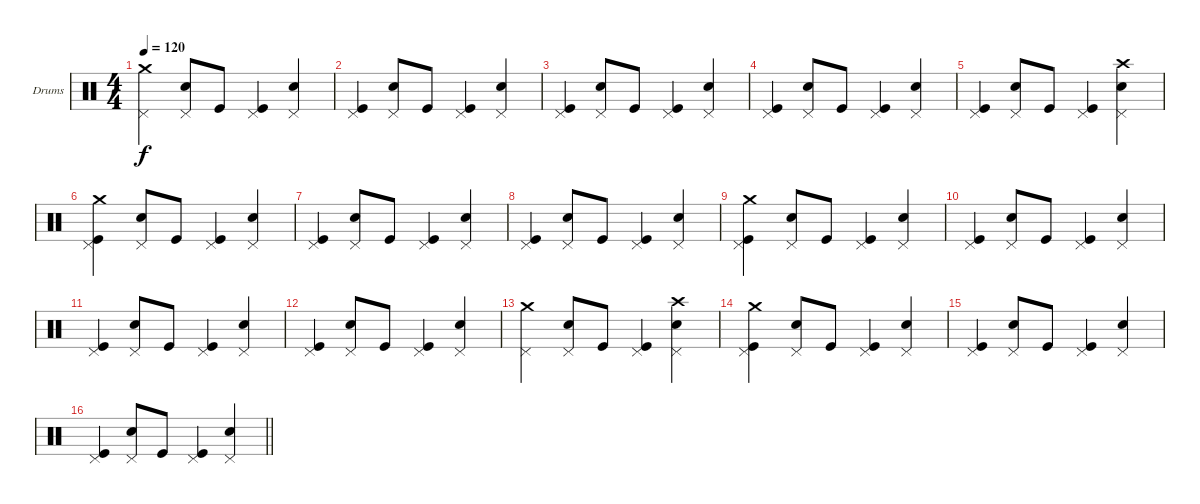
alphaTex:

\bracketExtendMode groupsimilarinstruments
\firstSystemTrackNameOrientation horizontal
\otherSystemsTrackNameOrientation horizontal
\track ("Drumkit" "Drums") {instrument percussion}
\staff {score}
\articulation defaults
\ts (4 4)
\tempo 120
\clef neutral
\ks c
("Crash medium (hit)" "Pedal Hi-Hat (hit)").4{dy f} ("Snare (hit) 2" "Pedal Hi-Hat (hit)").8 "Kick (hit)".8 ("Kick (hit)" "Pedal Hi-Hat (hit)").4 ("Snare (hit) 2" "Pedal Hi-Hat (hit)").4 |
("Kick (hit)" "Pedal Hi-Hat (hit)").4 ("Snare (hit) 2" "Pedal Hi-Hat (hit)").8 "Kick (hit)".8 ("Kick (hit)" "Pedal Hi-Hat (hit)").4 ("Snare (hit) 2" "Pedal Hi-Hat (hit)").4 |
("Kick (hit)" "Pedal Hi-Hat (hit)").4 ("Snare (hit) 2" "Pedal Hi-Hat (hit)").8 "Kick (hit)".8 ("Kick (hit)" "Pedal Hi-Hat (hit)").4 ("Snare (hit) 2" "Pedal Hi-Hat (hit)").4 |
("Kick (hit)" "Pedal Hi-Hat (hit)").4 ("Snare (hit) 2" "Pedal Hi-Hat (hit)").8 "Kick (hit)".8 ("Kick (hit)" "Pedal Hi-Hat (hit)").4 ("Snare (hit) 2" "Pedal Hi-Hat (hit)").4 |
("Kick (hit)" "Pedal Hi-Hat (hit)").4 ("Snare (hit) 2" "Pedal Hi-Hat (hit)").8 "Kick (hit)".8 ("Kick (hit)" "Pedal Hi-Hat (hit)").4 ("Snare (hit) 2" "Crash high (hit)" "Pedal Hi-Hat (hit)").4 |
("Kick (hit)" "Crash medium (hit)" "Pedal Hi-Hat (hit)").4 ("Snare (hit) 2" "Pedal Hi-Hat (hit)").8 "Kick (hit)".8 ("Kick (hit)" "Pedal Hi-Hat (hit)").4 ("Snare (hit) 2" "Pedal Hi-Hat (hit)").4 |
("Kick (hit)" "Pedal Hi-Hat (hit)").4 ("Snare (hit) 2" "Pedal Hi-Hat (hit)").8 "Kick (hit)".8 ("Kick (hit)" "Pedal Hi-Hat (hit)").4 ("Snare (hit) 2" "Pedal Hi-Hat (hit)").4 |
("Kick (hit)" "Pedal Hi-Hat (hit)").4 ("Snare (hit) 2" "Pedal Hi-Hat (hit)").8 "Kick (hit)".8 ("Kick (hit)" "Pedal Hi-Hat (hit)").4 ("Snare (hit) 2" "Pedal Hi-Hat (hit)").4 |
("Kick (hit)" "Crash medium (hit)" "Pedal Hi-Hat (hit)").4 ("Snare (hit) 2" "Pedal Hi-Hat (hit)").8 "Kick (hit)".8 ("Kick (hit)" "Pedal Hi-Hat (hit)").4 ("Snare (hit) 2" "Pedal Hi-Hat (hit)").4 |
("Kick (hit)" "Pedal Hi-Hat (hit)").4 ("Snare (hit) 2" "Pedal Hi-Hat (hit)").8 "Kick (hit)".8 ("Kick (hit)" "Pedal Hi-Hat (hit)").4 ("Snare (hit) 2" "Pedal Hi-Hat (hit)").4 |
("Kick (hit)" "Pedal Hi-Hat (hit)").4 ("Snare (hit) 2" "Pedal Hi-Hat (hit)").8 "Kick (hit)".8 ("Kick (hit)" "Pedal Hi-Hat (hit)").4 ("Snare (hit) 2" "Pedal Hi-Hat (hit)").4 |
("Kick (hit)" "Pedal Hi-Hat (hit)").4 ("Snare (hit) 2" "Pedal Hi-Hat (hit)").8 "Kick (hit)".8 ("Kick (hit)" "Pedal Hi-Hat (hit)").4 ("Snare (hit) 2" "Pedal Hi-Hat (hit)").4 |
("Crash medium (hit)" "Pedal Hi-Hat (hit)").4 ("Snare (hit) 2" "Pedal Hi-Hat (hit)").8 "Kick (hit)".8 ("Kick (hit)" "Pedal Hi-Hat (hit)").4 ("Snare (hit) 2" "Crash high (hit)" "Pedal Hi-Hat (hit)").4 |
("Kick (hit)" "Crash medium (hit)" "Pedal Hi-Hat (hit)").4 ("Snare (hit) 2" "Pedal Hi-Hat (hit)").8 "Kick (hit)".8 ("Kick (hit)" "Pedal Hi-Hat (hit)").4 ("Snare (hit) 2" "Pedal Hi-Hat (hit)").4 |
("Kick (hit)" "Pedal Hi-Hat (hit)").4 ("Snare (hit) 2" "Pedal Hi-Hat (hit)").8 "Kick (hit)".8 ("Kick (hit)" "Pedal Hi-Hat (hit)").4 ("Snare (hit) 2" "Pedal Hi-Hat (hit)").4 |
\barLineRight lightlight
("Kick (hit)" "Pedal Hi-Hat (hit)").4 ("Snare (hit) 2" "Pedal Hi-Hat (hit)").8 "Kick (hit)".8 ("Kick (hit)" "Pedal Hi-Hat (hit)").4 ("Snare (hit) 2" "Pedal Hi-Hat (hit)").4
